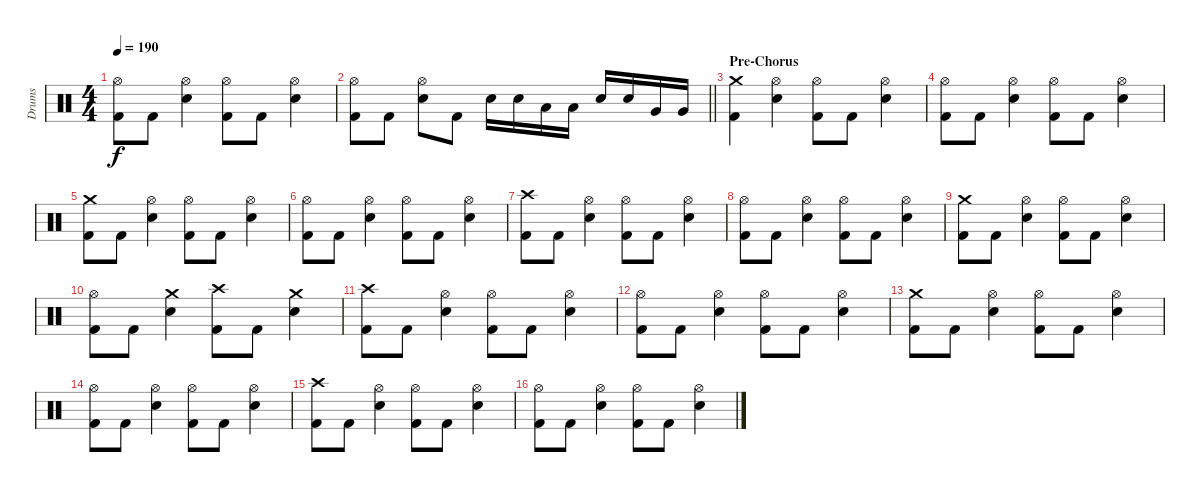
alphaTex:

\track ("Drums" "Drums") {instrument percussion}
\staff {score}
\articulation defaults
\ts (4 4)
\tempo 190
\clef neutral
\ks c
("Hi-Hat (open)" "Kick (hit) 2").8{dy f} "Kick (hit) 2".8 ("Hi-Hat (open)" "Electric Snare (hit)").4 ("Hi-Hat (open)" "Kick (hit) 2").8 "Kick (hit) 2".8 ("Hi-Hat (open)" "Electric Snare (hit)").4 |
\barLineRight lightlight
("Hi-Hat (open)" "Kick (hit) 2").8 "Kick (hit) 2".8 ("Hi-Hat (open)" "Electric Snare (hit)").8 "Kick (hit) 2".8 "Electric Snare (hit)".16 "Electric Snare (hit)".16 "Low Tom (hit)".16 "Low Tom (hit)".16 "Electric Snare (hit)".16 "Electric Snare (hit)".16 "Very Low Tom (hit)".16 "Very Low Tom (hit)".16 |
\section ("" "Pre-Chorus")
("Crash medium (hit)" "Kick (hit) 2").4 ("Hi-Hat (open)" "Electric Snare (hit)").4 ("Hi-Hat (open)" "Kick (hit) 2").8 "Kick (hit) 2".8 ("Hi-Hat (open)" "Electric Snare (hit)").4 |
("Hi-Hat (open)" "Kick (hit) 2").8 "Kick (hit) 2".8 ("Hi-Hat (open)" "Electric Snare (hit)").4 ("Hi-Hat (open)" "Kick (hit) 2").8 "Kick (hit) 2".8 ("Hi-Hat (open)" "Electric Snare (hit)").4 |
("Crash medium (hit)" "Kick (hit) 2").8 "Kick (hit) 2".8 ("Hi-Hat (open)" "Electric Snare (hit)").4 ("Hi-Hat (open)" "Kick (hit) 2").8 "Kick (hit) 2".8 ("Hi-Hat (open)" "Electric Snare (hit)").4 |
("Hi-Hat (open)" "Kick (hit) 2").8 "Kick (hit) 2".8 ("Hi-Hat (open)" "Electric Snare (hit)").4 ("Hi-Hat (open)" "Kick (hit) 2").8 "Kick (hit) 2".8 ("Hi-Hat (open)" "Electric Snare (hit)").4 |
("Crash high (hit)" "Kick (hit) 2").8 "Kick (hit) 2".8 ("Hi-Hat (open)" "Electric Snare (hit)").4 ("Hi-Hat (open)" "Kick (hit) 2").8 "Kick (hit) 2".8 ("Hi-Hat (open)" "Electric Snare (hit)").4 |
("Hi-Hat (open)" "Kick (hit) 2").8 "Kick (hit) 2".8 ("Hi-Hat (open)" "Electric Snare (hit)").4 ("Hi-Hat (open)" "Kick (hit) 2").8 "Kick (hit) 2".8 ("Hi-Hat (open)" "Electric Snare (hit)").4 |
("Crash medium (hit)" "Kick (hit) 2").8 "Kick (hit) 2".8 ("Hi-Hat (open)" "Electric Snare (hit)").4 ("Hi-Hat (open)" "Kick (hit) 2").8 "Kick (hit) 2".8 ("Hi-Hat (open)" "Electric Snare (hit)").4 |
("Hi-Hat (open)" "Kick (hit) 2").8 "Kick (hit) 2".8 ("Crash medium (hit)" "Electric Snare (hit)").4 ("Crash high (hit)" "Kick (hit) 2").8 "Kick (hit) 2".8 ("Crash medium (hit)" "Electric Snare (hit)").4 |
("Crash high (hit)" "Kick (hit) 2").8 "Kick (hit) 2".8 ("Hi-Hat (open)" "Electric Snare (hit)").4 ("Hi-Hat (open)" "Kick (hit) 2").8 "Kick (hit) 2".8 ("Hi-Hat (open)" "Electric Snare (hit)").4 |
("Hi-Hat (open)" "Kick (hit) 2").8 "Kick (hit) 2".8 ("Hi-Hat (open)" "Electric Snare (hit)").4 ("Hi-Hat (open)" "Kick (hit) 2").8 "Kick (hit) 2".8 ("Hi-Hat (open)" "Electric Snare (hit)").4 |
("Crash medium (hit)" "Kick (hit) 2").8 "Kick (hit) 2".8 ("Hi-Hat (open)" "Electric Snare (hit)").4 ("Hi-Hat (open)" "Kick (hit) 2").8 "Kick (hit) 2".8 ("Hi-Hat (open)" "Electric Snare (hit)").4 |
("Hi-Hat (open)" "Kick (hit) 2").8 "Kick (hit) 2".8 ("Hi-Hat (open)" "Electric Snare (hit)").4 ("Hi-Hat (open)" "Kick (hit) 2").8 "Kick (hit) 2".8 ("Hi-Hat (open)" "Electric Snare (hit)").4 |
("Crash high (hit)" "Kick (hit) 2").8 "Kick (hit) 2".8 ("Hi-Hat (open)" "Electric Snare (hit)").4 ("Hi-Hat (open)" "Kick (hit) 2").8 "Kick (hit) 2".8 ("Hi-Hat (open)" "Electric Snare (hit)").4 |
("Hi-Hat (open)" "Kick (hit) 2").8 "Kick (hit) 2".8 ("Hi-Hat (open)" "Electric Snare (hit)").4 ("Hi-Hat (open)" "Kick (hit) 2").8 "Kick (hit) 2".8 ("Hi-Hat (open)" "Electric Snare (hit)").4
